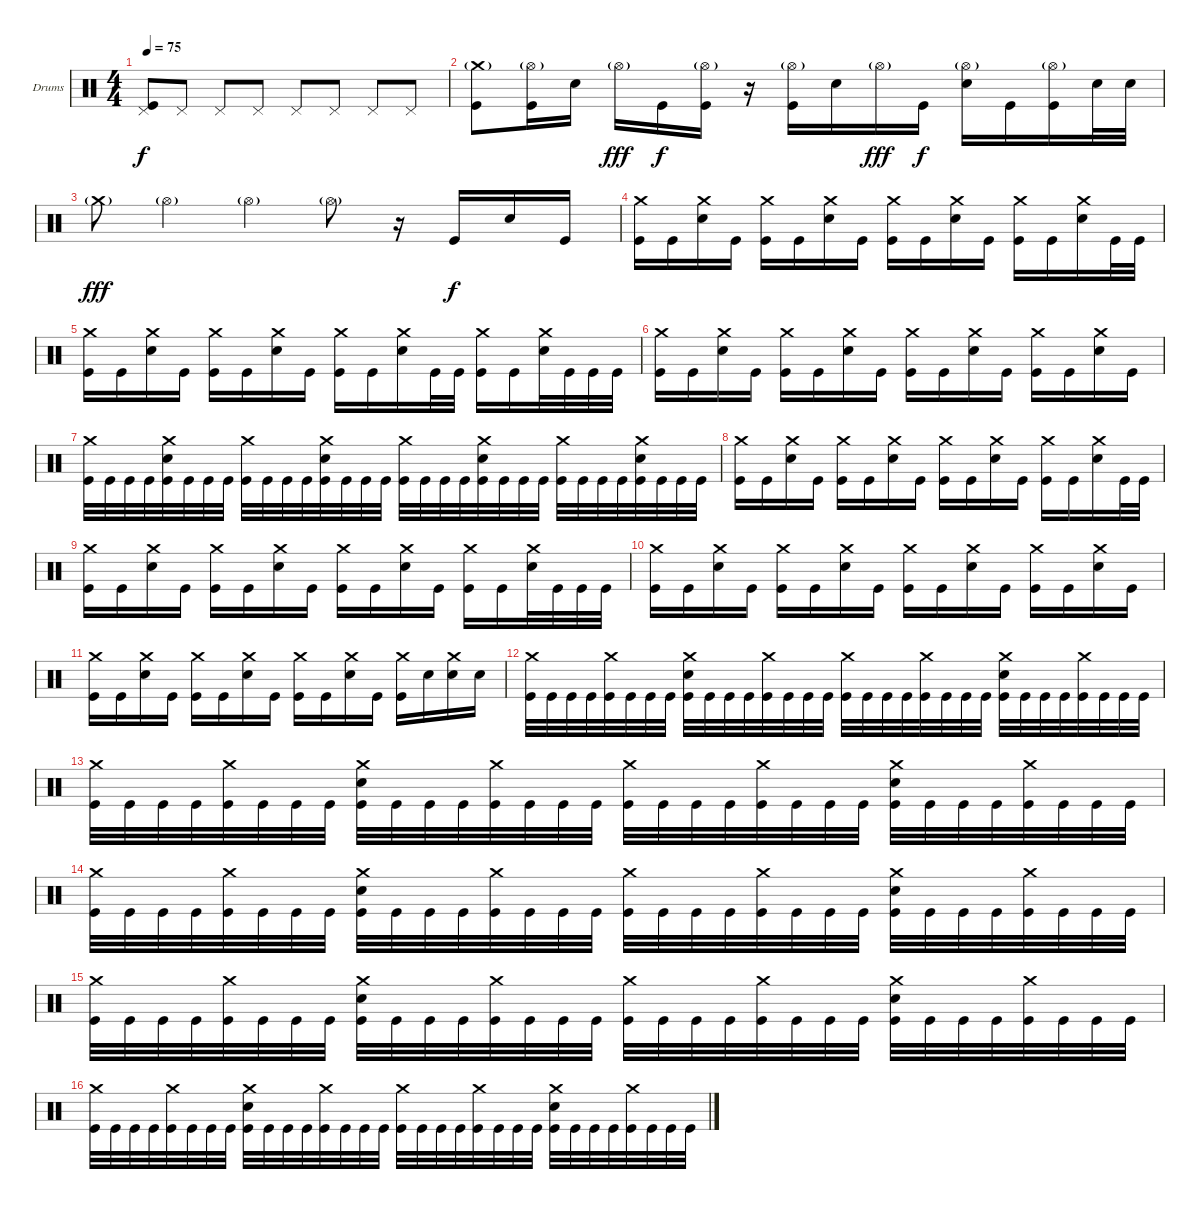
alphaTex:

\bracketExtendMode groupsimilarinstruments
\firstSystemTrackNameOrientation horizontal
\otherSystemsTrackNameOrientation horizontal
\track ("Drumkit" "Drums") {instrument percussion}
\staff {score}
\articulation defaults
\ts (4 4)
\tempo 75
\clef neutral
\ks c
("Kick (hit)" "Pedal Hi-Hat (hit)").8{dy f} "Pedal Hi-Hat (hit)".8 "Pedal Hi-Hat (hit)".8 "Pedal Hi-Hat (hit)".8 "Pedal Hi-Hat (hit)".8 "Pedal Hi-Hat (hit)".8 "Pedal Hi-Hat (hit)".8 "Pedal Hi-Hat (hit)".8 |
("Kick (hit)" "Crash medium (hit)"{g}).8 ("Kick (hit)" "Hi-Hat (open)"{g}).16 "Snare (hit) 2".16 "Hi-Hat (open)"{g}.16{dy fff} "Kick (hit)".16{dy f} ("Kick (hit)" "Hi-Hat (open)"{g}).16 r.16 ("Kick (hit)" "Hi-Hat (open)"{g}).16 "Snare (hit) 2".16 "Hi-Hat (open)"{g}.16{dy fff} "Kick (hit)".16{dy f} ("Snare (hit) 2" "Hi-Hat (open)"{g}).16 "Kick (hit)".16 ("Kick (hit)" "Hi-Hat (open)"{g}).16 "Snare (hit) 2".32 "Snare (hit) 2".32 |
"Crash medium (hit)"{g}.8{dy fff} "Hi-Hat (open)"{g}.4 "Hi-Hat (open)"{g}.4 "Hi-Hat (open)"{g}.8 r.16 "Kick (hit)".16{dy f} "Snare (hit) 2".16 "Kick (hit)".16 |
("Kick (hit)" "Crash medium (hit)").16 "Kick (hit)".16 ("Snare (hit) 2" "Crash medium (hit)").16 "Kick (hit)".16 ("Kick (hit)" "Crash medium (hit)").16 "Kick (hit)".16 ("Snare (hit) 2" "Crash medium (hit)").16 "Kick (hit)".16 ("Kick (hit)" "Crash medium (hit)").16 "Kick (hit)".16 ("Snare (hit) 2" "Crash medium (hit)").16 "Kick (hit)".16 ("Kick (hit)" "Crash medium (hit)").16 "Kick (hit)".16 ("Snare (hit) 2" "Crash medium (hit)").16 "Kick (hit)".32 "Kick (hit)".32 |
("Kick (hit)" "Crash medium (hit)").16 "Kick (hit)".16 ("Snare (hit) 2" "Crash medium (hit)").16 "Kick (hit)".16 ("Kick (hit)" "Crash medium (hit)").16 "Kick (hit)".16 ("Snare (hit) 2" "Crash medium (hit)").16 "Kick (hit)".16 ("Kick (hit)" "Crash medium (hit)").16 "Kick (hit)".16 ("Snare (hit) 2" "Crash medium (hit)").16 "Kick (hit)".32 "Kick (hit)".32 ("Kick (hit)" "Crash medium (hit)").16 "Kick (hit)".16 ("Snare (hit) 2" "Crash medium (hit)").32 "Kick (hit)".32 "Kick (hit)".32 "Kick (hit)".32 |
("Kick (hit)" "Crash medium (hit)").16 "Kick (hit)".16 ("Snare (hit) 2" "Crash medium (hit)").16 "Kick (hit)".16 ("Kick (hit)" "Crash medium (hit)").16 "Kick (hit)".16 ("Snare (hit) 2" "Crash medium (hit)").16 "Kick (hit)".16 ("Kick (hit)" "Crash medium (hit)").16 "Kick (hit)".16 ("Snare (hit) 2" "Crash medium (hit)").16 "Kick (hit)".16 ("Kick (hit)" "Crash medium (hit)").16 "Kick (hit)".16 ("Snare (hit) 2" "Crash medium (hit)").16 "Kick (hit)".16 |
("Kick (hit)" "Crash medium (hit)").32 "Kick (hit)".32 "Kick (hit)".32 "Kick (hit)".32 ("Kick (hit)" "Crash medium (hit)" "Snare (hit) 2").32 "Kick (hit)".32 "Kick (hit)".32 "Kick (hit)".32 ("Kick (hit)" "Crash medium (hit)").32 "Kick (hit)".32 "Kick (hit)".32 "Kick (hit)".32 ("Kick (hit)" "Crash medium (hit)" "Snare (hit) 2").32 "Kick (hit)".32 "Kick (hit)".32 "Kick (hit)".32 ("Kick (hit)" "Crash medium (hit)").32 "Kick (hit)".32 "Kick (hit)".32 "Kick (hit)".32 ("Kick (hit)" "Crash medium (hit)" "Snare (hit) 2").32 "Kick (hit)".32 "Kick (hit)".32 "Kick (hit)".32 ("Kick (hit)" "Crash medium (hit)").32 "Kick (hit)".32 "Kick (hit)".32 "Kick (hit)".32 ("Kick (hit)" "Crash medium (hit)" "Snare (hit) 2").32 "Kick (hit)".32 "Kick (hit)".32 "Kick (hit)".32 |
("Kick (hit)" "Crash medium (hit)").16 "Kick (hit)".16 ("Snare (hit) 2" "Crash medium (hit)").16 "Kick (hit)".16 ("Kick (hit)" "Crash medium (hit)").16 "Kick (hit)".16 ("Snare (hit) 2" "Crash medium (hit)").16 "Kick (hit)".16 ("Kick (hit)" "Crash medium (hit)").16 "Kick (hit)".16 ("Snare (hit) 2" "Crash medium (hit)").16 "Kick (hit)".16 ("Kick (hit)" "Crash medium (hit)").16 "Kick (hit)".16 ("Snare (hit) 2" "Crash medium (hit)").16 "Kick (hit)".32 "Kick (hit)".32 |
("Kick (hit)" "Crash medium (hit)").16 "Kick (hit)".16 ("Snare (hit) 2" "Crash medium (hit)").16 "Kick (hit)".16 ("Kick (hit)" "Crash medium (hit)").16 "Kick (hit)".16 ("Snare (hit) 2" "Crash medium (hit)").16 "Kick (hit)".16 ("Kick (hit)" "Crash medium (hit)").16 "Kick (hit)".16 ("Snare (hit) 2" "Crash medium (hit)").16 "Kick (hit)".16 ("Kick (hit)" "Crash medium (hit)").16 "Kick (hit)".16 ("Snare (hit) 2" "Crash medium (hit)").32 "Kick (hit)".32 "Kick (hit)".32 "Kick (hit)".32 |
("Kick (hit)" "Crash medium (hit)").16 "Kick (hit)".16 ("Snare (hit) 2" "Crash medium (hit)").16 "Kick (hit)".16 ("Kick (hit)" "Crash medium (hit)").16 "Kick (hit)".16 ("Snare (hit) 2" "Crash medium (hit)").16 "Kick (hit)".16 ("Kick (hit)" "Crash medium (hit)").16 "Kick (hit)".16 ("Snare (hit) 2" "Crash medium (hit)").16 "Kick (hit)".16 ("Kick (hit)" "Crash medium (hit)").16 "Kick (hit)".16 ("Snare (hit) 2" "Crash medium (hit)").16 "Kick (hit)".16 |
("Kick (hit)" "Crash medium (hit)").16 "Kick (hit)".16 ("Snare (hit) 2" "Crash medium (hit)").16 "Kick (hit)".16 ("Kick (hit)" "Crash medium (hit)").16 "Kick (hit)".16 ("Snare (hit) 2" "Crash medium (hit)").16 "Kick (hit)".16 ("Kick (hit)" "Crash medium (hit)").16 "Kick (hit)".16 ("Snare (hit) 2" "Crash medium (hit)").16 "Kick (hit)".16 ("Kick (hit)" "Crash medium (hit)").16 "Snare (hit) 2".16 ("Snare (hit) 2" "Crash medium (hit)").16 "Snare (hit) 2".16 |
("Kick (hit)" "Crash medium (hit)").32 "Kick (hit)".32 "Kick (hit)".32 "Kick (hit)".32 ("Kick (hit)" "Crash medium (hit)").32 "Kick (hit)".32 "Kick (hit)".32 "Kick (hit)".32 ("Kick (hit)" "Crash medium (hit)" "Snare (hit) 2").32 "Kick (hit)".32 "Kick (hit)".32 "Kick (hit)".32 ("Kick (hit)" "Crash medium (hit)").32 "Kick (hit)".32 "Kick (hit)".32 "Kick (hit)".32 ("Kick (hit)" "Crash medium (hit)").32 "Kick (hit)".32 "Kick (hit)".32 "Kick (hit)".32 ("Kick (hit)" "Crash medium (hit)").32 "Kick (hit)".32 "Kick (hit)".32 "Kick (hit)".32 ("Kick (hit)" "Crash medium (hit)" "Snare (hit) 2").32 "Kick (hit)".32 "Kick (hit)".32 "Kick (hit)".32 ("Kick (hit)" "Crash medium (hit)").32 "Kick (hit)".32 "Kick (hit)".32 "Kick (hit)".32 |
("Kick (hit)" "Crash medium (hit)").32 "Kick (hit)".32 "Kick (hit)".32 "Kick (hit)".32 ("Kick (hit)" "Crash medium (hit)").32 "Kick (hit)".32 "Kick (hit)".32 "Kick (hit)".32 ("Kick (hit)" "Crash medium (hit)" "Snare (hit) 2").32 "Kick (hit)".32 "Kick (hit)".32 "Kick (hit)".32 ("Kick (hit)" "Crash medium (hit)").32 "Kick (hit)".32 "Kick (hit)".32 "Kick (hit)".32 ("Kick (hit)" "Crash medium (hit)").32 "Kick (hit)".32 "Kick (hit)".32 "Kick (hit)".32 ("Kick (hit)" "Crash medium (hit)").32 "Kick (hit)".32 "Kick (hit)".32 "Kick (hit)".32 ("Kick (hit)" "Crash medium (hit)" "Snare (hit) 2").32 "Kick (hit)".32 "Kick (hit)".32 "Kick (hit)".32 ("Kick (hit)" "Crash medium (hit)").32 "Kick (hit)".32 "Kick (hit)".32 "Kick (hit)".32 |
("Kick (hit)" "Crash medium (hit)").32 "Kick (hit)".32 "Kick (hit)".32 "Kick (hit)".32 ("Kick (hit)" "Crash medium (hit)").32 "Kick (hit)".32 "Kick (hit)".32 "Kick (hit)".32 ("Kick (hit)" "Crash medium (hit)" "Snare (hit) 2").32 "Kick (hit)".32 "Kick (hit)".32 "Kick (hit)".32 ("Kick (hit)" "Crash medium (hit)").32 "Kick (hit)".32 "Kick (hit)".32 "Kick (hit)".32 ("Kick (hit)" "Crash medium (hit)").32 "Kick (hit)".32 "Kick (hit)".32 "Kick (hit)".32 ("Kick (hit)" "Crash medium (hit)").32 "Kick (hit)".32 "Kick (hit)".32 "Kick (hit)".32 ("Kick (hit)" "Crash medium (hit)" "Snare (hit) 2").32 "Kick (hit)".32 "Kick (hit)".32 "Kick (hit)".32 ("Kick (hit)" "Crash medium (hit)").32 "Kick (hit)".32 "Kick (hit)".32 "Kick (hit)".32 |
("Kick (hit)" "Crash medium (hit)").32 "Kick (hit)".32 "Kick (hit)".32 "Kick (hit)".32 ("Kick (hit)" "Crash medium (hit)").32 "Kick (hit)".32 "Kick (hit)".32 "Kick (hit)".32 ("Kick (hit)" "Crash medium (hit)" "Snare (hit) 2").32 "Kick (hit)".32 "Kick (hit)".32 "Kick (hit)".32 ("Kick (hit)" "Crash medium (hit)").32 "Kick (hit)".32 "Kick (hit)".32 "Kick (hit)".32 ("Kick (hit)" "Crash medium (hit)").32 "Kick (hit)".32 "Kick (hit)".32 "Kick (hit)".32 ("Kick (hit)" "Crash medium (hit)").32 "Kick (hit)".32 "Kick (hit)".32 "Kick (hit)".32 ("Kick (hit)" "Crash medium (hit)" "Snare (hit) 2").32 "Kick (hit)".32 "Kick (hit)".32 "Kick (hit)".32 ("Kick (hit)" "Crash medium (hit)").32 "Kick (hit)".32 "Kick (hit)".32 "Kick (hit)".32 |
("Kick (hit)" "Crash medium (hit)").32 "Kick (hit)".32 "Kick (hit)".32 "Kick (hit)".32 ("Kick (hit)" "Crash medium (hit)").32 "Kick (hit)".32 "Kick (hit)".32 "Kick (hit)".32 ("Kick (hit)" "Crash medium (hit)" "Snare (hit) 2").32 "Kick (hit)".32 "Kick (hit)".32 "Kick (hit)".32 ("Kick (hit)" "Crash medium (hit)").32 "Kick (hit)".32 "Kick (hit)".32 "Kick (hit)".32 ("Kick (hit)" "Crash medium (hit)").32 "Kick (hit)".32 "Kick (hit)".32 "Kick (hit)".32 ("Kick (hit)" "Crash medium (hit)").32 "Kick (hit)".32 "Kick (hit)".32 "Kick (hit)".32 ("Kick (hit)" "Crash medium (hit)" "Snare (hit) 2").32 "Kick (hit)".32 "Kick (hit)".32 "Kick (hit)".32 ("Kick (hit)" "Crash medium (hit)").32 "Kick (hit)".32 "Kick (hit)".32 "Kick (hit)".32
